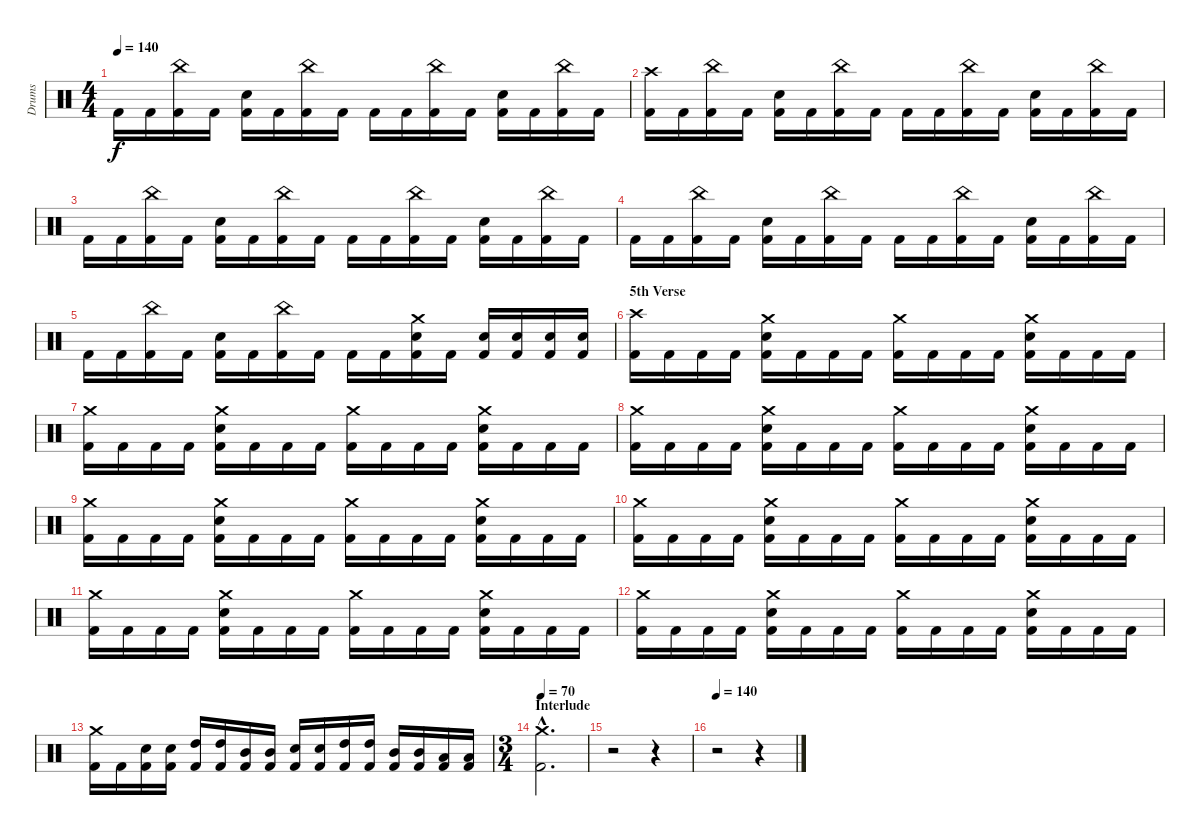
\track ("Drums" "Drums") {instrument percussion}
\staff {score}
\articulation defaults
\ts (4 4)
\tempo 140
\clef neutral
\ks c "Kick (hit) 2".16{dy f} "Kick (hit) 2".16
("Kick (hit) 2" "China (hit)").16 "Kick (hit) 2".16 ("Kick (hit) 2" "Electric Snare (hit)").16 "Kick (hit) 2".16 ("Kick (hit) 2" "China (hit)").16 "Kick (hit) 2".16 "Kick (hit) 2".16 "Kick (hit) 2".16 ("Kick (hit) 2" "China (hit)").16 "Kick (hit) 2".16 ("Kick (hit) 2" "Electric Snare (hit)").16 "Kick (hit) 2".16 ("Kick (hit) 2" "China (hit)").16 "Kick (hit) 2".16 |
("Kick (hit) 2" "Crash high (hit)").16 "Kick (hit) 2".16 ("Kick (hit) 2" "China (hit)").16 "Kick (hit) 2".16 ("Kick (hit) 2" "Electric Snare (hit)").16 "Kick (hit) 2".16 ("Kick (hit) 2" "China (hit)").16 "Kick (hit) 2".16 "Kick (hit) 2".16 "Kick (hit) 2".16 ("Kick (hit) 2" "China (hit)").16 "Kick (hit) 2".16 ("Kick (hit) 2" "Electric Snare (hit)").16 "Kick (hit) 2".16 ("Kick (hit) 2" "China (hit)").16 "Kick (hit) 2".16 |
"Kick (hit) 2".16 "Kick (hit) 2".16 ("Kick (hit) 2" "China (hit)").16 "Kick (hit) 2".16 ("Kick (hit) 2" "Electric Snare (hit)").16 "Kick (hit) 2".16 ("Kick (hit) 2" "China (hit)").16 "Kick (hit) 2".16 "Kick (hit) 2".16 "Kick (hit) 2".16 ("Kick (hit) 2" "China (hit)").16 "Kick (hit) 2".16 ("Kick (hit) 2" "Electric Snare (hit)").16 "Kick (hit) 2".16 ("Kick (hit) 2" "China (hit)").16 "Kick (hit) 2".16 |
"Kick (hit) 2".16 "Kick (hit) 2".16 ("Kick (hit) 2" "China (hit)").16 "Kick (hit) 2".16 ("Kick (hit) 2" "Electric Snare (hit)").16 "Kick (hit) 2".16 ("Kick (hit) 2" "China (hit)").16 "Kick (hit) 2".16 "Kick (hit) 2".16 "Kick (hit) 2".16 ("Kick (hit) 2" "China (hit)").16 "Kick (hit) 2".16 ("Kick (hit) 2" "Electric Snare (hit)").16 "Kick (hit) 2".16 ("Kick (hit) 2" "China (hit)").16 "Kick (hit) 2".16 |
"Kick (hit) 2".16 "Kick (hit) 2".16 ("Kick (hit) 2" "China (hit)").16 "Kick (hit) 2".16 ("Kick (hit) 2" "Electric Snare (hit)").16 "Kick (hit) 2".16 ("Kick (hit) 2" "China (hit)").16 "Kick (hit) 2".16 "Kick (hit) 2".16 "Kick (hit) 2".16 ("Kick (hit) 2" "Electric Snare (hit)" "Crash medium (hit)").16 "Kick (hit) 2".16 ("Kick (hit) 2" "Electric Snare (hit)").16 ("Kick (hit) 2" "Electric Snare (hit)").16 ("Kick (hit) 2" "Electric Snare (hit)").16 ("Kick (hit) 2" "Electric Snare (hit)").16 |
\section ("" "5th Verse")
("Kick (hit) 2" "Crash high (hit)").16 "Kick (hit) 2".16 "Kick (hit) 2".16 "Kick (hit) 2".16 ("Kick (hit) 2" "Electric Snare (hit)" "Crash medium (hit)").16 "Kick (hit) 2".16 "Kick (hit) 2".16 "Kick (hit) 2".16 ("Kick (hit) 2" "Crash medium (hit)").16 "Kick (hit) 2".16 "Kick (hit) 2".16 "Kick (hit) 2".16 ("Kick (hit) 2" "Electric Snare (hit)" "Crash medium (hit)").16 "Kick (hit) 2".16 "Kick (hit) 2".16 "Kick (hit) 2".16 |
("Kick (hit) 2" "Crash medium (hit)").16 "Kick (hit) 2".16 "Kick (hit) 2".16 "Kick (hit) 2".16 ("Kick (hit) 2" "Electric Snare (hit)" "Crash medium (hit)").16 "Kick (hit) 2".16 "Kick (hit) 2".16 "Kick (hit) 2".16 ("Kick (hit) 2" "Crash medium (hit)").16 "Kick (hit) 2".16 "Kick (hit) 2".16 "Kick (hit) 2".16 ("Kick (hit) 2" "Electric Snare (hit)" "Crash medium (hit)").16 "Kick (hit) 2".16 "Kick (hit) 2".16 "Kick (hit) 2".16 |
("Kick (hit) 2" "Crash medium (hit)").16 "Kick (hit) 2".16 "Kick (hit) 2".16 "Kick (hit) 2".16 ("Kick (hit) 2" "Electric Snare (hit)" "Crash medium (hit)").16 "Kick (hit) 2".16 "Kick (hit) 2".16 "Kick (hit) 2".16 ("Kick (hit) 2" "Crash medium (hit)").16 "Kick (hit) 2".16 "Kick (hit) 2".16 "Kick (hit) 2".16 ("Kick (hit) 2" "Electric Snare (hit)" "Crash medium (hit)").16 "Kick (hit) 2".16 "Kick (hit) 2".16 "Kick (hit) 2".16 |
("Kick (hit) 2" "Crash medium (hit)").16 "Kick (hit) 2".16 "Kick (hit) 2".16 "Kick (hit) 2".16 ("Kick (hit) 2" "Electric Snare (hit)" "Crash medium (hit)").16 "Kick (hit) 2".16 "Kick (hit) 2".16 "Kick (hit) 2".16 ("Kick (hit) 2" "Crash medium (hit)").16 "Kick (hit) 2".16 "Kick (hit) 2".16 "Kick (hit) 2".16 ("Kick (hit) 2" "Electric Snare (hit)" "Crash medium (hit)").16 "Kick (hit) 2".16 "Kick (hit) 2".16 "Kick (hit) 2".16 |
("Kick (hit) 2" "Crash medium (hit)").16 "Kick (hit) 2".16 "Kick (hit) 2".16 "Kick (hit) 2".16 ("Kick (hit) 2" "Electric Snare (hit)" "Crash medium (hit)").16 "Kick (hit) 2".16 "Kick (hit) 2".16 "Kick (hit) 2".16 ("Kick (hit) 2" "Crash medium (hit)").16 "Kick (hit) 2".16 "Kick (hit) 2".16 "Kick (hit) 2".16 ("Kick (hit) 2" "Electric Snare (hit)" "Crash medium (hit)").16 "Kick (hit) 2".16 "Kick (hit) 2".16 "Kick (hit) 2".16 |
("Kick (hit) 2" "Crash medium (hit)").16 "Kick (hit) 2".16 "Kick (hit) 2".16 "Kick (hit) 2".16 ("Kick (hit) 2" "Electric Snare (hit)" "Crash medium (hit)").16 "Kick (hit) 2".16 "Kick (hit) 2".16 "Kick (hit) 2".16 ("Kick (hit) 2" "Crash medium (hit)").16 "Kick (hit) 2".16 "Kick (hit) 2".16 "Kick (hit) 2".16 ("Kick (hit) 2" "Electric Snare (hit)" "Crash medium (hit)").16 "Kick (hit) 2".16 "Kick (hit) 2".16 "Kick (hit) 2".16 |
("Kick (hit) 2" "Crash medium (hit)").16 "Kick (hit) 2".16 "Kick (hit) 2".16 "Kick (hit) 2".16 ("Kick (hit) 2" "Electric Snare (hit)" "Crash medium (hit)").16 "Kick (hit) 2".16 "Kick (hit) 2".16 "Kick (hit) 2".16 ("Kick (hit) 2" "Crash medium (hit)").16 "Kick (hit) 2".16 "Kick (hit) 2".16 "Kick (hit) 2".16 ("Kick (hit) 2" "Electric Snare (hit)" "Crash medium (hit)").16 "Kick (hit) 2".16 "Kick (hit) 2".16 "Kick (hit) 2".16 |
("Kick (hit) 2" "Crash medium (hit)").16 "Kick (hit) 2".16 ("Kick (hit) 2" "Electric Snare (hit)").16 ("Kick (hit) 2" "Electric Snare (hit)").16 ("Kick (hit) 2" "High Tom (hit)").16 ("Kick (hit) 2" "High Tom (hit)").16 ("Kick (hit) 2" "Mid Tom (hit)").16 ("Kick (hit) 2" "Mid Tom (hit)").16 ("Kick (hit) 2" "Electric Snare (hit)").16 ("Kick (hit) 2" "Electric Snare (hit)").16 ("Kick (hit) 2" "High Tom (hit)").16 ("Kick (hit) 2" "High Tom (hit)").16 ("Kick (hit) 2" "Mid Tom (hit)").16 ("Kick (hit) 2" "Mid Tom (hit)").16 ("Kick (hit) 2" "Low Tom (hit)").16 ("Kick (hit) 2" "Low Tom (hit)").16 |
\ts (3 4)
\section ("" "Interlude")
\tempo 70
("Kick (hit) 2"{hac} "Crash medium (hit)"{hac}).2{d} |
r.2 r.4 |
\tempo 140
r.2 r.4
